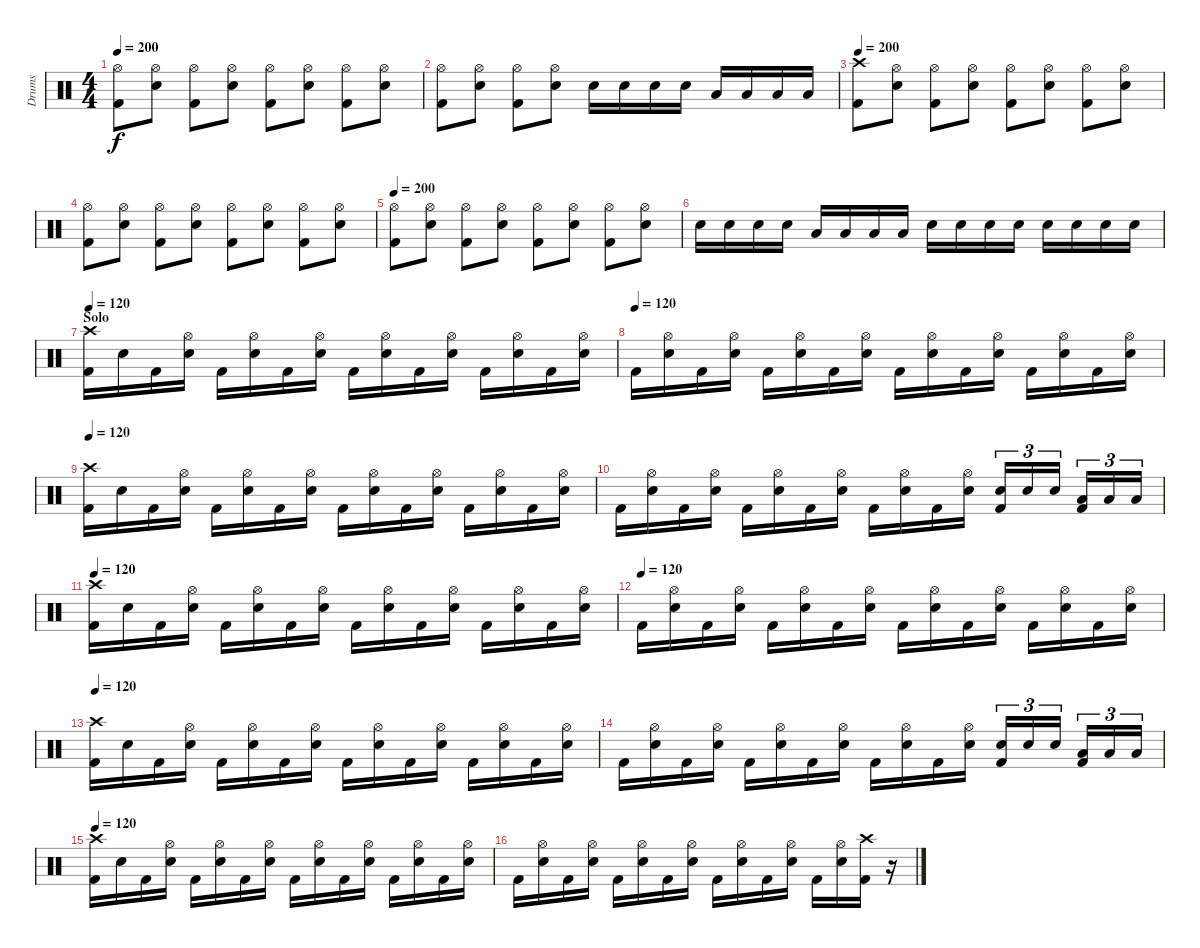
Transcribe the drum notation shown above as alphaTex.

\track ("Drums" "Drums") {instrument percussion}
\staff {score}
\articulation defaults
\ts (4 4)
\tempo 190
\tempo 200
\clef neutral
\ks c
("Hi-Hat (open)" "Kick (hit) 2").8{dy f} ("Hi-Hat (open)" "Electric Snare (hit)").8 ("Hi-Hat (open)" "Kick (hit) 2").8 ("Hi-Hat (open)" "Electric Snare (hit)").8 ("Hi-Hat (open)" "Kick (hit) 2").8 ("Hi-Hat (open)" "Electric Snare (hit)").8 ("Hi-Hat (open)" "Kick (hit) 2").8 ("Hi-Hat (open)" "Electric Snare (hit)").8 |
("Hi-Hat (open)" "Kick (hit) 2").8 ("Hi-Hat (open)" "Electric Snare (hit)").8 ("Hi-Hat (open)" "Kick (hit) 2").8 ("Hi-Hat (open)" "Electric Snare (hit)").8 "Electric Snare (hit)".16 "Electric Snare (hit)".16 "Electric Snare (hit)".16 "Electric Snare (hit)".16 "Low Tom (hit)".16 "Low Tom (hit)".16 "Low Tom (hit)".16 "Low Tom (hit)".16 |
\tempo 200
("Crash high (hit)" "Kick (hit) 2").8 ("Hi-Hat (open)" "Electric Snare (hit)").8 ("Hi-Hat (open)" "Kick (hit) 2").8 ("Hi-Hat (open)" "Electric Snare (hit)").8 ("Hi-Hat (open)" "Kick (hit) 2").8 ("Hi-Hat (open)" "Electric Snare (hit)").8 ("Hi-Hat (open)" "Kick (hit) 2").8 ("Hi-Hat (open)" "Electric Snare (hit)").8 |
("Hi-Hat (open)" "Kick (hit) 2").8 ("Hi-Hat (open)" "Electric Snare (hit)").8 ("Hi-Hat (open)" "Kick (hit) 2").8 ("Hi-Hat (open)" "Electric Snare (hit)").8 ("Hi-Hat (open)" "Kick (hit) 2").8 ("Hi-Hat (open)" "Electric Snare (hit)").8 ("Hi-Hat (open)" "Kick (hit) 2").8 ("Hi-Hat (open)" "Electric Snare (hit)").8 |
\tempo 190
\tempo 200
("Hi-Hat (open)" "Kick (hit) 2").8 ("Hi-Hat (open)" "Electric Snare (hit)").8 ("Hi-Hat (open)" "Kick (hit) 2").8 ("Hi-Hat (open)" "Electric Snare (hit)").8 ("Hi-Hat (open)" "Kick (hit) 2").8 ("Hi-Hat (open)" "Electric Snare (hit)").8 ("Hi-Hat (open)" "Kick (hit) 2").8 ("Hi-Hat (open)" "Electric Snare (hit)").8 |
"Electric Snare (hit)".16 "Electric Snare (hit)".16 "Electric Snare (hit)".16 "Electric Snare (hit)".16 "Low Tom (hit)".16 "Low Tom (hit)".16 "Low Tom (hit)".16 "Low Tom (hit)".16 "Electric Snare (hit)".16 "Electric Snare (hit)".16 "Electric Snare (hit)".16 "Electric Snare (hit)".16 "Electric Snare (hit)".16 "Electric Snare (hit)".16 "Electric Snare (hit)".16 "Electric Snare (hit)".16 |
\section ("" "Solo")
\tempo 120
("Crash high (hit)" "Kick (hit) 2").16 "Electric Snare (hit)".16 "Kick (hit) 2".16 ("Hi-Hat (open)" "Electric Snare (hit)").16 "Kick (hit) 2".16 ("Hi-Hat (open)" "Electric Snare (hit)").16 "Kick (hit) 2".16 ("Hi-Hat (open)" "Electric Snare (hit)").16 "Kick (hit) 2".16 ("Hi-Hat (open)" "Electric Snare (hit)").16 "Kick (hit) 2".16 ("Hi-Hat (open)" "Electric Snare (hit)").16 "Kick (hit) 2".16 ("Hi-Hat (open)" "Electric Snare (hit)").16 "Kick (hit) 2".16 ("Hi-Hat (open)" "Electric Snare (hit)").16 |
\tempo (120)
"Kick (hit) 2".16 ("Hi-Hat (open)" "Electric Snare (hit)").16 "Kick (hit) 2".16 ("Hi-Hat (open)" "Electric Snare (hit)").16 "Kick (hit) 2".16 ("Hi-Hat (open)" "Electric Snare (hit)").16 "Kick (hit) 2".16 ("Hi-Hat (open)" "Electric Snare (hit)").16 "Kick (hit) 2".16 ("Hi-Hat (open)" "Electric Snare (hit)").16 "Kick (hit) 2".16 ("Hi-Hat (open)" "Electric Snare (hit)").16 "Kick (hit) 2".16 ("Hi-Hat (open)" "Electric Snare (hit)").16 "Kick (hit) 2".16 ("Hi-Hat (open)" "Electric Snare (hit)").16 |
\tempo 120
("Crash high (hit)" "Kick (hit) 2").16 "Electric Snare (hit)".16 "Kick (hit) 2".16 ("Hi-Hat (open)" "Electric Snare (hit)").16 "Kick (hit) 2".16 ("Hi-Hat (open)" "Electric Snare (hit)").16 "Kick (hit) 2".16 ("Hi-Hat (open)" "Electric Snare (hit)").16 "Kick (hit) 2".16 ("Hi-Hat (open)" "Electric Snare (hit)").16 "Kick (hit) 2".16 ("Hi-Hat (open)" "Electric Snare (hit)").16 "Kick (hit) 2".16 ("Hi-Hat (open)" "Electric Snare (hit)").16 "Kick (hit) 2".16 ("Hi-Hat (open)" "Electric Snare (hit)").16 |
"Kick (hit) 2".16 ("Hi-Hat (open)" "Electric Snare (hit)").16 "Kick (hit) 2".16 ("Hi-Hat (open)" "Electric Snare (hit)").16 "Kick (hit) 2".16 ("Hi-Hat (open)" "Electric Snare (hit)").16 "Kick (hit) 2".16 ("Hi-Hat (open)" "Electric Snare (hit)").16 "Kick (hit) 2".16 ("Hi-Hat (open)" "Electric Snare (hit)").16 "Kick (hit) 2".16 ("Hi-Hat (open)" "Electric Snare (hit)").16 ("Electric Snare (hit)" "Kick (hit) 2").16{tu (3 2)} "Electric Snare (hit)".16{tu (3 2)} "Electric Snare (hit)".16{tu (3 2)} ("Low Tom (hit)" "Kick (hit) 2").16{tu (3 2)} "Low Tom (hit)".16{tu (3 2)} "Low Tom (hit)".16{tu (3 2)} |
\tempo 120
("Crash high (hit)" "Kick (hit) 2").16 "Electric Snare (hit)".16 "Kick (hit) 2".16 ("Hi-Hat (open)" "Electric Snare (hit)").16 "Kick (hit) 2".16 ("Hi-Hat (open)" "Electric Snare (hit)").16 "Kick (hit) 2".16 ("Hi-Hat (open)" "Electric Snare (hit)").16 "Kick (hit) 2".16 ("Hi-Hat (open)" "Electric Snare (hit)").16 "Kick (hit) 2".16 ("Hi-Hat (open)" "Electric Snare (hit)").16 "Kick (hit) 2".16 ("Hi-Hat (open)" "Electric Snare (hit)").16 "Kick (hit) 2".16 ("Hi-Hat (open)" "Electric Snare (hit)").16 |
\tempo (120)
"Kick (hit) 2".16 ("Hi-Hat (open)" "Electric Snare (hit)").16 "Kick (hit) 2".16 ("Hi-Hat (open)" "Electric Snare (hit)").16 "Kick (hit) 2".16 ("Hi-Hat (open)" "Electric Snare (hit)").16 "Kick (hit) 2".16 ("Hi-Hat (open)" "Electric Snare (hit)").16 "Kick (hit) 2".16 ("Hi-Hat (open)" "Electric Snare (hit)").16 "Kick (hit) 2".16 ("Hi-Hat (open)" "Electric Snare (hit)").16 "Kick (hit) 2".16 ("Hi-Hat (open)" "Electric Snare (hit)").16 "Kick (hit) 2".16 ("Hi-Hat (open)" "Electric Snare (hit)").16 |
\tempo 120
("Crash high (hit)" "Kick (hit) 2").16 "Electric Snare (hit)".16 "Kick (hit) 2".16 ("Hi-Hat (open)" "Electric Snare (hit)").16 "Kick (hit) 2".16 ("Hi-Hat (open)" "Electric Snare (hit)").16 "Kick (hit) 2".16 ("Hi-Hat (open)" "Electric Snare (hit)").16 "Kick (hit) 2".16 ("Hi-Hat (open)" "Electric Snare (hit)").16 "Kick (hit) 2".16 ("Hi-Hat (open)" "Electric Snare (hit)").16 "Kick (hit) 2".16 ("Hi-Hat (open)" "Electric Snare (hit)").16 "Kick (hit) 2".16 ("Hi-Hat (open)" "Electric Snare (hit)").16 |
"Kick (hit) 2".16 ("Hi-Hat (open)" "Electric Snare (hit)").16 "Kick (hit) 2".16 ("Hi-Hat (open)" "Electric Snare (hit)").16 "Kick (hit) 2".16 ("Hi-Hat (open)" "Electric Snare (hit)").16 "Kick (hit) 2".16 ("Hi-Hat (open)" "Electric Snare (hit)").16 "Kick (hit) 2".16 ("Hi-Hat (open)" "Electric Snare (hit)").16 "Kick (hit) 2".16 ("Hi-Hat (open)" "Electric Snare (hit)").16 ("Electric Snare (hit)" "Kick (hit) 2").16{tu (3 2)} "Electric Snare (hit)".16{tu (3 2)} "Electric Snare (hit)".16{tu (3 2)} ("Low Tom (hit)" "Kick (hit) 2").16{tu (3 2)} "Low Tom (hit)".16{tu (3 2)} "Low Tom (hit)".16{tu (3 2)} |
\tempo 120
("Crash high (hit)" "Kick (hit) 2").16 "Electric Snare (hit)".16 "Kick (hit) 2".16 ("Hi-Hat (open)" "Electric Snare (hit)").16 "Kick (hit) 2".16 ("Hi-Hat (open)" "Electric Snare (hit)").16 "Kick (hit) 2".16 ("Hi-Hat (open)" "Electric Snare (hit)").16 "Kick (hit) 2".16 ("Hi-Hat (open)" "Electric Snare (hit)").16 "Kick (hit) 2".16 ("Hi-Hat (open)" "Electric Snare (hit)").16 "Kick (hit) 2".16 ("Hi-Hat (open)" "Electric Snare (hit)").16 "Kick (hit) 2".16 ("Hi-Hat (open)" "Electric Snare (hit)").16 |
"Kick (hit) 2".16 ("Hi-Hat (open)" "Electric Snare (hit)").16 "Kick (hit) 2".16 ("Hi-Hat (open)" "Electric Snare (hit)").16 "Kick (hit) 2".16 ("Hi-Hat (open)" "Electric Snare (hit)").16 "Kick (hit) 2".16 ("Hi-Hat (open)" "Electric Snare (hit)").16 "Kick (hit) 2".16 ("Hi-Hat (open)" "Electric Snare (hit)").16 "Kick (hit) 2".16 ("Hi-Hat (open)" "Electric Snare (hit)").16 "Kick (hit) 2".16 ("Hi-Hat (open)" "Electric Snare (hit)").16 ("Crash high (hit)" "Kick (hit) 2").16 r.16
